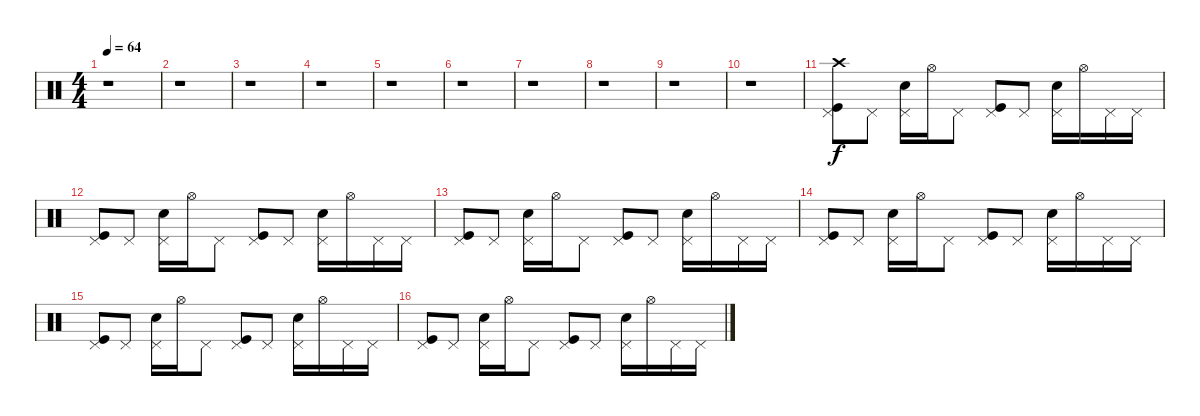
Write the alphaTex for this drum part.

\track "" {instrument percussion}
\staff {score}
\articulation defaults
\ts (4 4)
\tempo 64
\clef neutral
\ks c
r.1{dy f} |
r.1 |
r.1 |
r.1 |
r.1 |
r.1 |
r.1 |
r.1 |
r.1 |
r.1 |
("Pedal Hi-Hat (hit)" "Kick (hit)" "Crash high (hit)").8 "Pedal Hi-Hat (hit)".8 ("Pedal Hi-Hat (hit)" "Snare (hit) 2").16 "Hi-Hat (open)".16 "Pedal Hi-Hat (hit)".8 ("Pedal Hi-Hat (hit)" "Kick (hit)").8 "Pedal Hi-Hat (hit)".8 ("Pedal Hi-Hat (hit)" "Snare (hit) 2").16 "Hi-Hat (open)".16 "Pedal Hi-Hat (hit)".16 "Pedal Hi-Hat (hit)".16 |
("Kick (hit)" "Pedal Hi-Hat (hit)").8 "Pedal Hi-Hat (hit)".8 ("Snare (hit) 2" "Pedal Hi-Hat (hit)").16 "Hi-Hat (open)".16 "Pedal Hi-Hat (hit)".8 ("Kick (hit)" "Pedal Hi-Hat (hit)").8 "Pedal Hi-Hat (hit)".8 ("Snare (hit) 2" "Pedal Hi-Hat (hit)").16 "Hi-Hat (open)".16 "Pedal Hi-Hat (hit)".16 "Pedal Hi-Hat (hit)".16 |
("Kick (hit)" "Pedal Hi-Hat (hit)").8 "Pedal Hi-Hat (hit)".8 ("Snare (hit) 2" "Pedal Hi-Hat (hit)").16 "Hi-Hat (open)".16 "Pedal Hi-Hat (hit)".8 ("Kick (hit)" "Pedal Hi-Hat (hit)").8 "Pedal Hi-Hat (hit)".8 ("Snare (hit) 2" "Pedal Hi-Hat (hit)").16 "Hi-Hat (open)".16 "Pedal Hi-Hat (hit)".16 "Pedal Hi-Hat (hit)".16 |
("Kick (hit)" "Pedal Hi-Hat (hit)").8 "Pedal Hi-Hat (hit)".8 ("Snare (hit) 2" "Pedal Hi-Hat (hit)").16 "Hi-Hat (open)".16 "Pedal Hi-Hat (hit)".8 ("Kick (hit)" "Pedal Hi-Hat (hit)").8 "Pedal Hi-Hat (hit)".8 ("Snare (hit) 2" "Pedal Hi-Hat (hit)").16 "Hi-Hat (open)".16 "Pedal Hi-Hat (hit)".16 "Pedal Hi-Hat (hit)".16 |
("Kick (hit)" "Pedal Hi-Hat (hit)").8 "Pedal Hi-Hat (hit)".8 ("Snare (hit) 2" "Pedal Hi-Hat (hit)").16 "Hi-Hat (open)".16 "Pedal Hi-Hat (hit)".8 ("Kick (hit)" "Pedal Hi-Hat (hit)").8 "Pedal Hi-Hat (hit)".8 ("Snare (hit) 2" "Pedal Hi-Hat (hit)").16 "Hi-Hat (open)".16 "Pedal Hi-Hat (hit)".16 "Pedal Hi-Hat (hit)".16 |
("Kick (hit)" "Pedal Hi-Hat (hit)").8 "Pedal Hi-Hat (hit)".8 ("Snare (hit) 2" "Pedal Hi-Hat (hit)").16 "Hi-Hat (open)".16 "Pedal Hi-Hat (hit)".8 ("Kick (hit)" "Pedal Hi-Hat (hit)").8 "Pedal Hi-Hat (hit)".8 ("Snare (hit) 2" "Pedal Hi-Hat (hit)").16 "Hi-Hat (open)".16 "Pedal Hi-Hat (hit)".16 "Pedal Hi-Hat (hit)".16
